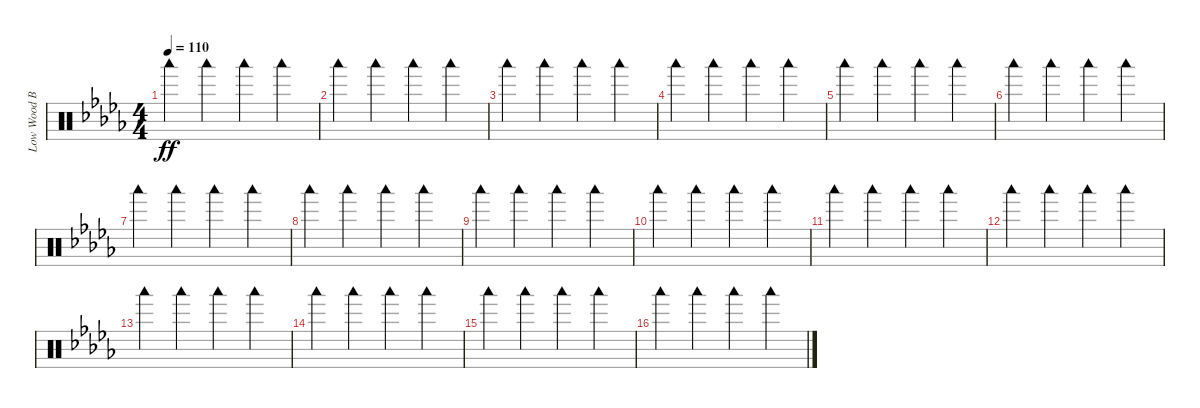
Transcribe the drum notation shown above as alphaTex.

\track ("Low Wood Blick / Side Stick" "Low Wood B") {instrument percussion}
\staff {score}
\articulation defaults
\ts (4 4)
\tempo 110
\clef neutral
\ks db "Woodblock low (hit)".4{dy ff} "Woodblock low (hit)".4 "Woodblock low (hit)".4 "Woodblock low (hit)".4
|
"Woodblock low (hit)".4 "Woodblock low (hit)".4 "Woodblock low (hit)".4 "Woodblock low (hit)".4 |
"Woodblock low (hit)".4 "Woodblock low (hit)".4 "Woodblock low (hit)".4 "Woodblock low (hit)".4 |
"Woodblock low (hit)".4 "Woodblock low (hit)".4 "Woodblock low (hit)".4 "Woodblock low (hit)".4 |
"Woodblock low (hit)".4 "Woodblock low (hit)".4 "Woodblock low (hit)".4 "Woodblock low (hit)".4 |
"Woodblock low (hit)".4 "Woodblock low (hit)".4 "Woodblock low (hit)".4 "Woodblock low (hit)".4 |
"Woodblock low (hit)".4 "Woodblock low (hit)".4 "Woodblock low (hit)".4 "Woodblock low (hit)".4 |
"Woodblock low (hit)".4 "Woodblock low (hit)".4 "Woodblock low (hit)".4 "Woodblock low (hit)".4 |
"Woodblock low (hit)".4 "Woodblock low (hit)".4 "Woodblock low (hit)".4 "Woodblock low (hit)".4 |
"Woodblock low (hit)".4 "Woodblock low (hit)".4 "Woodblock low (hit)".4 "Woodblock low (hit)".4 |
"Woodblock low (hit)".4 "Woodblock low (hit)".4 "Woodblock low (hit)".4 "Woodblock low (hit)".4 |
"Woodblock low (hit)".4 "Woodblock low (hit)".4 "Woodblock low (hit)".4 "Woodblock low (hit)".4 |
"Woodblock low (hit)".4 "Woodblock low (hit)".4 "Woodblock low (hit)".4 "Woodblock low (hit)".4 |
"Woodblock low (hit)".4 "Woodblock low (hit)".4 "Woodblock low (hit)".4 "Woodblock low (hit)".4 |
"Woodblock low (hit)".4 "Woodblock low (hit)".4 "Woodblock low (hit)".4 "Woodblock low (hit)".4 |
"Woodblock low (hit)".4 "Woodblock low (hit)".4 "Woodblock low (hit)".4 "Woodblock low (hit)".4
